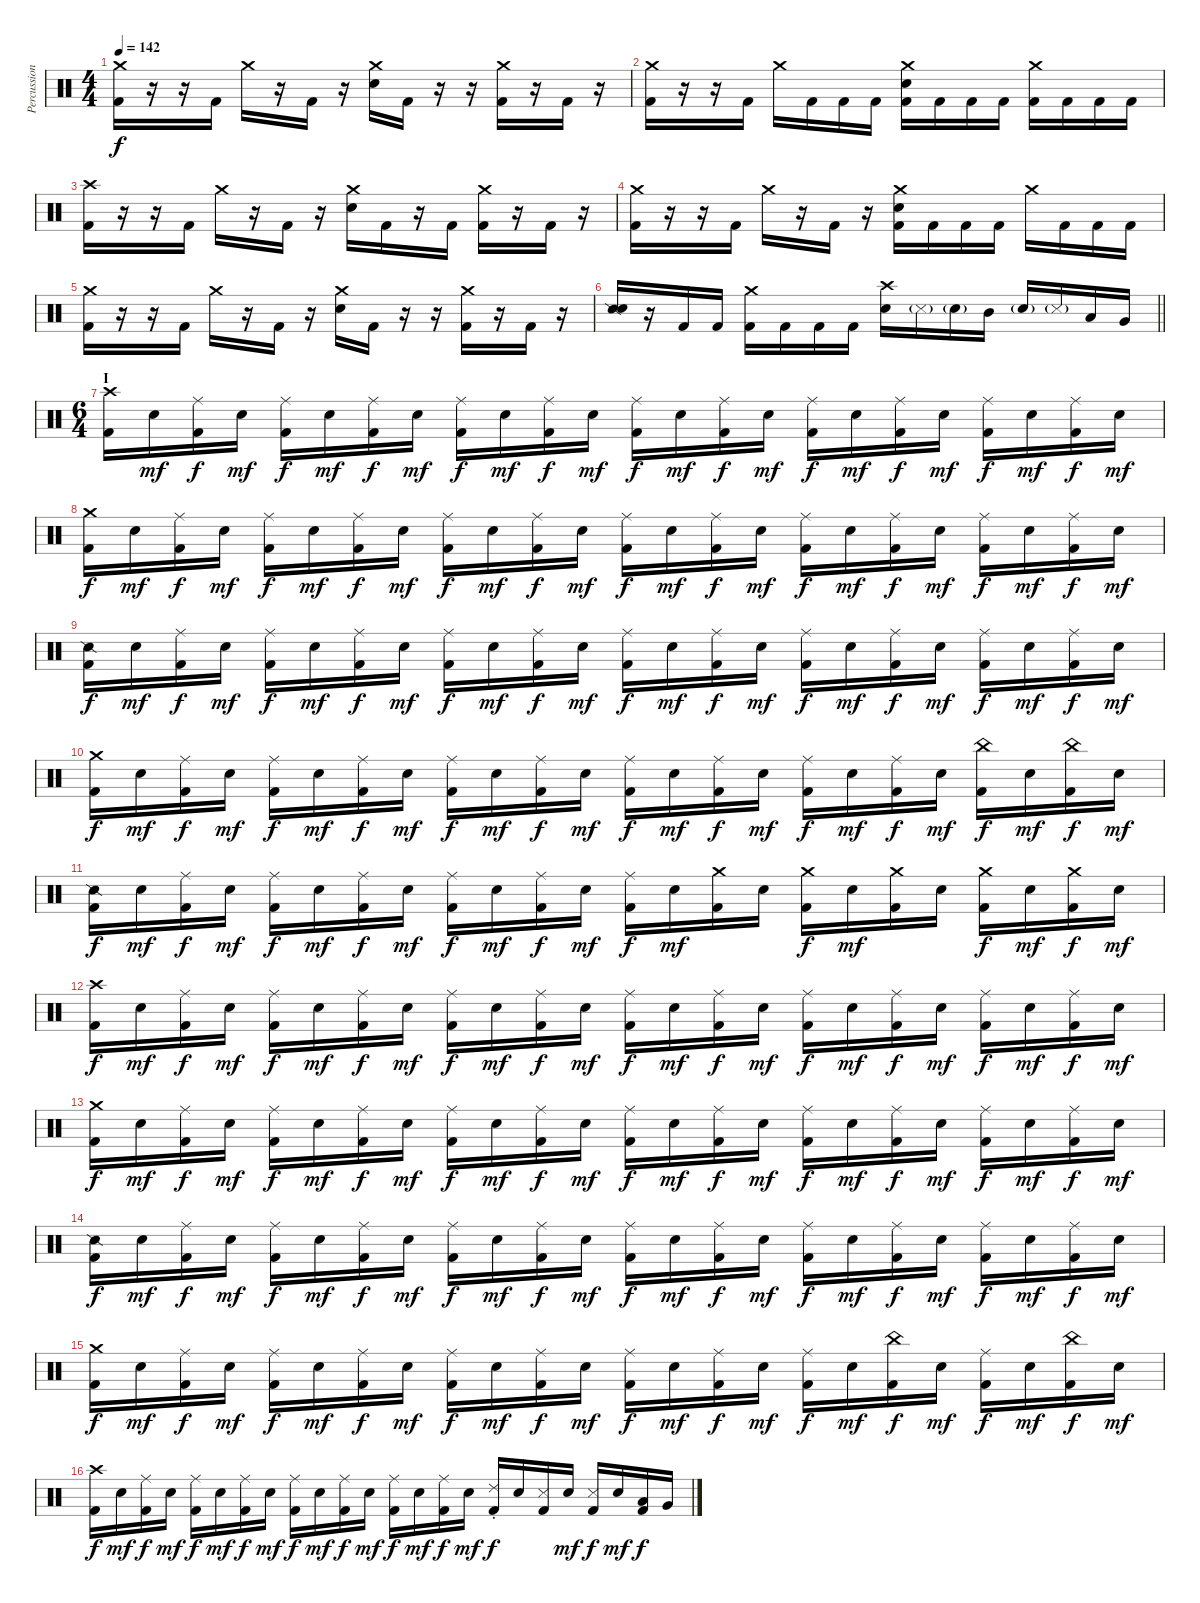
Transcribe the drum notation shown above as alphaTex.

\track ("Percussion" "Percussion") {instrument percussion}
\staff {score}
\articulation defaults
\ts (4 4)
\tempo 142
\clef neutral
\ks c
("Crash medium (hit)" "Kick (hit) 2").16{dy f} r.16 r.16 "Kick (hit) 2".16 "Crash medium (hit)".16 r.16 "Kick (hit) 2".16 r.16 ("Crash medium (hit)" "Snare (hit) 2").16 "Kick (hit) 2".16 r.16 r.16 ("Crash medium (hit)" "Kick (hit) 2").16 r.16 "Kick (hit) 2".16 r.16 |
("Crash medium (hit)" "Kick (hit) 2").16 r.16 r.16 "Kick (hit) 2".16 "Crash medium (hit)".16 "Kick (hit) 2".16 "Kick (hit) 2".16 "Kick (hit) 2".16 ("Crash medium (hit)" "Snare (hit) 2" "Kick (hit) 2").16 "Kick (hit) 2".16 "Kick (hit) 2".16 "Kick (hit) 2".16 ("Crash medium (hit)" "Kick (hit) 2").16 "Kick (hit) 2".16 "Kick (hit) 2".16 "Kick (hit) 2".16 |
("Crash high (hit)" "Kick (hit) 2").16 r.16 r.16 "Kick (hit) 2".16 "Crash medium (hit)".16 r.16 "Kick (hit) 2".16 r.16 ("Crash medium (hit)" "Snare (hit) 2").16 "Kick (hit) 2".16 r.16 "Kick (hit) 2".16 ("Crash medium (hit)" "Kick (hit) 2").16 r.16 "Kick (hit) 2".16 r.16 |
("Crash medium (hit)" "Kick (hit) 2").16 r.16 r.16 "Kick (hit) 2".16 "Crash medium (hit)".16 r.16 "Kick (hit) 2".16 r.16 ("Crash medium (hit)" "Snare (hit) 2" "Kick (hit) 2").16 "Kick (hit) 2".16 "Kick (hit) 2".16 "Kick (hit) 2".16 "Crash medium (hit)".16 "Kick (hit) 2".16 "Kick (hit) 2".16 "Kick (hit) 2".16 |
("Crash medium (hit)" "Kick (hit) 2").16 r.16 r.16 "Kick (hit) 2".16 "Crash medium (hit)".16 r.16 "Kick (hit) 2".16 r.16 ("Crash medium (hit)" "Snare (hit) 2").16 "Kick (hit) 2".16 r.16 r.16 ("Crash medium (hit)" "Kick (hit) 2").16 r.16 "Kick (hit) 2".16 r.16 |
\barLineRight lightlight
("Snare (side stick) 2" "Snare (hit) 2").16 r.16 "Kick (hit) 2".16 "Kick (hit) 2".16 ("Crash medium (hit)" "Kick (hit) 2").16 "Kick (hit) 2".16 "Kick (hit) 2".16 "Kick (hit) 2".16 ("Crash high (hit)" "Snare (hit) 2").16 "Metronome (hit)"{g}.16 "Snare (hit) 2"{g}.16 "Mid Tom (hit)".16 "Snare (hit) 2"{g}.16 "Metronome (hit)"{g}.16 "Low Tom (hit)".16 "Very Low Tom (hit)".16 |
\ts (6 4)
\section ("" "I")
("Crash high (hit)" "Kick (hit) 2").16 "Snare (hit) 2".16{dy mf} ("Ride (middle)" "Kick (hit) 2").16{dy f} "Snare (hit) 2".16{dy mf} ("Ride (middle)" "Kick (hit) 2").16{dy f} "Snare (hit) 2".16{dy mf} ("Ride (middle)" "Kick (hit) 2").16{dy f} "Snare (hit) 2".16{dy mf} ("Ride (middle)" "Kick (hit) 2").16{dy f} "Snare (hit) 2".16{dy mf} ("Ride (middle)" "Kick (hit) 2").16{dy f} "Snare (hit) 2".16{dy mf} ("Ride (middle)" "Kick (hit) 2").16{dy f} "Snare (hit) 2".16{dy mf} ("Ride (middle)" "Kick (hit) 2").16{dy f} "Snare (hit) 2".16{dy mf} ("Ride (middle)" "Kick (hit) 2").16{dy f} "Snare (hit) 2".16{dy mf} ("Ride (middle)" "Kick (hit) 2").16{dy f} "Snare (hit) 2".16{dy mf} ("Ride (middle)" "Kick (hit) 2").16{dy f} "Snare (hit) 2".16{dy mf} ("Ride (middle)" "Kick (hit) 2").16{dy f} "Snare (hit) 2".16{dy mf} |
("Crash medium (hit)" "Kick (hit) 2").16{dy f} "Snare (hit) 2".16{dy mf} ("Ride (middle)" "Kick (hit) 2").16{dy f} "Snare (hit) 2".16{dy mf} ("Ride (middle)" "Kick (hit) 2").16{dy f} "Snare (hit) 2".16{dy mf} ("Ride (middle)" "Kick (hit) 2").16{dy f} "Snare (hit) 2".16{dy mf} ("Ride (middle)" "Kick (hit) 2").16{dy f} "Snare (hit) 2".16{dy mf} ("Ride (middle)" "Kick (hit) 2").16{dy f} "Snare (hit) 2".16{dy mf} ("Ride (middle)" "Kick (hit) 2").16{dy f} "Snare (hit) 2".16{dy mf} ("Ride (middle)" "Kick (hit) 2").16{dy f} "Snare (hit) 2".16{dy mf} ("Ride (middle)" "Kick (hit) 2").16{dy f} "Snare (hit) 2".16{dy mf} ("Ride (middle)" "Kick (hit) 2").16{dy f} "Snare (hit) 2".16{dy mf} ("Ride (middle)" "Kick (hit) 2").16{dy f} "Snare (hit) 2".16{dy mf} ("Ride (middle)" "Kick (hit) 2").16{dy f} "Snare (hit) 2".16{dy mf} |
("Snare (side stick) 2" "Kick (hit) 2").16{dy f} "Snare (hit) 2".16{dy mf} ("Ride (middle)" "Kick (hit) 2").16{dy f} "Snare (hit) 2".16{dy mf} ("Ride (middle)" "Kick (hit) 2").16{dy f} "Snare (hit) 2".16{dy mf} ("Ride (middle)" "Kick (hit) 2").16{dy f} "Snare (hit) 2".16{dy mf} ("Ride (middle)" "Kick (hit) 2").16{dy f} "Snare (hit) 2".16{dy mf} ("Ride (middle)" "Kick (hit) 2").16{dy f} "Snare (hit) 2".16{dy mf} ("Ride (middle)" "Kick (hit) 2").16{dy f} "Snare (hit) 2".16{dy mf} ("Ride (middle)" "Kick (hit) 2").16{dy f} "Snare (hit) 2".16{dy mf} ("Ride (middle)" "Kick (hit) 2").16{dy f} "Snare (hit) 2".16{dy mf} ("Ride (middle)" "Kick (hit) 2").16{dy f} "Snare (hit) 2".16{dy mf} ("Ride (middle)" "Kick (hit) 2").16{dy f} "Snare (hit) 2".16{dy mf} ("Ride (middle)" "Kick (hit) 2").16{dy f} "Snare (hit) 2".16{dy mf} |
("Crash medium (hit)" "Kick (hit) 2").16{dy f} "Snare (hit) 2".16{dy mf} ("Ride (middle)" "Kick (hit) 2").16{dy f} "Snare (hit) 2".16{dy mf} ("Ride (middle)" "Kick (hit) 2").16{dy f} "Snare (hit) 2".16{dy mf} ("Ride (middle)" "Kick (hit) 2").16{dy f} "Snare (hit) 2".16{dy mf} ("Ride (middle)" "Kick (hit) 2").16{dy f} "Snare (hit) 2".16{dy mf} ("Ride (middle)" "Kick (hit) 2").16{dy f} "Snare (hit) 2".16{dy mf} ("Ride (middle)" "Kick (hit) 2").16{dy f} "Snare (hit) 2".16{dy mf} ("Ride (middle)" "Kick (hit) 2").16{dy f} "Snare (hit) 2".16{dy mf} ("Ride (middle)" "Kick (hit) 2").16{dy f} "Snare (hit) 2".16{dy mf} ("Ride (middle)" "Kick (hit) 2").16{dy f} "Snare (hit) 2".16{dy mf} ("China (hit)" "Kick (hit) 2").16{dy f} "Snare (hit) 2".16{dy mf} ("China (hit)" "Kick (hit) 2").16{dy f} "Snare (hit) 2".16{dy mf} |
("Snare (side stick) 2" "Kick (hit) 2").16{dy f} "Snare (hit) 2".16{dy mf} ("Ride (middle)" "Kick (hit) 2").16{dy f} "Snare (hit) 2".16{dy mf} ("Ride (middle)" "Kick (hit) 2").16{dy f} "Snare (hit) 2".16{dy mf} ("Ride (middle)" "Kick (hit) 2").16{dy f} "Snare (hit) 2".16{dy mf} ("Ride (middle)" "Kick (hit) 2").16{dy f} "Snare (hit) 2".16{dy mf} ("Ride (middle)" "Kick (hit) 2").16{dy f} "Snare (hit) 2".16{dy mf} ("Ride (middle)" "Kick (hit) 2").16{dy f} "Snare (hit) 2".16{dy mf} ("Crash medium (hit)" "Kick (hit) 2").16 "Snare (hit) 2".16 ("Crash medium (hit)" "Kick (hit) 2").16{dy f} "Snare (hit) 2".16{dy mf} ("Crash medium (hit)" "Kick (hit) 2").16 "Snare (hit) 2".16 ("Crash medium (hit)" "Kick (hit) 2").16{dy f} "Snare (hit) 2".16{dy mf} ("Crash medium (hit)" "Kick (hit) 2").16{dy f} "Snare (hit) 2".16{dy mf} |
("Crash high (hit)" "Kick (hit) 2").16{dy f} "Snare (hit) 2".16{dy mf} ("Ride (middle)" "Kick (hit) 2").16{dy f} "Snare (hit) 2".16{dy mf} ("Ride (middle)" "Kick (hit) 2").16{dy f} "Snare (hit) 2".16{dy mf} ("Ride (middle)" "Kick (hit) 2").16{dy f} "Snare (hit) 2".16{dy mf} ("Ride (middle)" "Kick (hit) 2").16{dy f} "Snare (hit) 2".16{dy mf} ("Ride (middle)" "Kick (hit) 2").16{dy f} "Snare (hit) 2".16{dy mf} ("Ride (middle)" "Kick (hit) 2").16{dy f} "Snare (hit) 2".16{dy mf} ("Ride (middle)" "Kick (hit) 2").16{dy f} "Snare (hit) 2".16{dy mf} ("Ride (middle)" "Kick (hit) 2").16{dy f} "Snare (hit) 2".16{dy mf} ("Ride (middle)" "Kick (hit) 2").16{dy f} "Snare (hit) 2".16{dy mf} ("Ride (middle)" "Kick (hit) 2").16{dy f} "Snare (hit) 2".16{dy mf} ("Ride (middle)" "Kick (hit) 2").16{dy f} "Snare (hit) 2".16{dy mf} |
("Crash medium (hit)" "Kick (hit) 2").16{dy f} "Snare (hit) 2".16{dy mf} ("Ride (middle)" "Kick (hit) 2").16{dy f} "Snare (hit) 2".16{dy mf} ("Ride (middle)" "Kick (hit) 2").16{dy f} "Snare (hit) 2".16{dy mf} ("Ride (middle)" "Kick (hit) 2").16{dy f} "Snare (hit) 2".16{dy mf} ("Ride (middle)" "Kick (hit) 2").16{dy f} "Snare (hit) 2".16{dy mf} ("Ride (middle)" "Kick (hit) 2").16{dy f} "Snare (hit) 2".16{dy mf} ("Ride (middle)" "Kick (hit) 2").16{dy f} "Snare (hit) 2".16{dy mf} ("Ride (middle)" "Kick (hit) 2").16{dy f} "Snare (hit) 2".16{dy mf} ("Ride (middle)" "Kick (hit) 2").16{dy f} "Snare (hit) 2".16{dy mf} ("Ride (middle)" "Kick (hit) 2").16{dy f} "Snare (hit) 2".16{dy mf} ("Ride (middle)" "Kick (hit) 2").16{dy f} "Snare (hit) 2".16{dy mf} ("Ride (middle)" "Kick (hit) 2").16{dy f} "Snare (hit) 2".16{dy mf} |
("Snare (side stick) 2" "Kick (hit) 2").16{dy f} "Snare (hit) 2".16{dy mf} ("Ride (middle)" "Kick (hit) 2").16{dy f} "Snare (hit) 2".16{dy mf} ("Ride (middle)" "Kick (hit) 2").16{dy f} "Snare (hit) 2".16{dy mf} ("Ride (middle)" "Kick (hit) 2").16{dy f} "Snare (hit) 2".16{dy mf} ("Ride (middle)" "Kick (hit) 2").16{dy f} "Snare (hit) 2".16{dy mf} ("Ride (middle)" "Kick (hit) 2").16{dy f} "Snare (hit) 2".16{dy mf} ("Ride (middle)" "Kick (hit) 2").16{dy f} "Snare (hit) 2".16{dy mf} ("Ride (middle)" "Kick (hit) 2").16{dy f} "Snare (hit) 2".16{dy mf} ("Ride (middle)" "Kick (hit) 2").16{dy f} "Snare (hit) 2".16{dy mf} ("Ride (middle)" "Kick (hit) 2").16{dy f} "Snare (hit) 2".16{dy mf} ("Ride (middle)" "Kick (hit) 2").16{dy f} "Snare (hit) 2".16{dy mf} ("Ride (middle)" "Kick (hit) 2").16{dy f} "Snare (hit) 2".16{dy mf} |
("Crash medium (hit)" "Kick (hit) 2").16{dy f} "Snare (hit) 2".16{dy mf} ("Ride (middle)" "Kick (hit) 2").16{dy f} "Snare (hit) 2".16{dy mf} ("Ride (middle)" "Kick (hit) 2").16{dy f} "Snare (hit) 2".16{dy mf} ("Ride (middle)" "Kick (hit) 2").16{dy f} "Snare (hit) 2".16{dy mf} ("Ride (middle)" "Kick (hit) 2").16{dy f} "Snare (hit) 2".16{dy mf} ("Ride (middle)" "Kick (hit) 2").16{dy f} "Snare (hit) 2".16{dy mf} ("Ride (middle)" "Kick (hit) 2").16{dy f} "Snare (hit) 2".16{dy mf} ("Ride (middle)" "Kick (hit) 2").16{dy f} "Snare (hit) 2".16{dy mf} ("Ride (middle)" "Kick (hit) 2").16{dy f} "Snare (hit) 2".16{dy mf} ("China (hit)" "Kick (hit) 2").16{dy f} "Snare (hit) 2".16{dy mf} ("Ride (middle)" "Kick (hit) 2").16{dy f} "Snare (hit) 2".16{dy mf} ("China (hit)" "Kick (hit) 2").16{dy f} "Snare (hit) 2".16{dy mf} |
("Crash high (hit)" "Kick (hit) 2").16{dy f} "Snare (hit) 2".16{dy mf} ("Ride (middle)" "Kick (hit) 2").16{dy f} "Snare (hit) 2".16{dy mf} ("Ride (middle)" "Kick (hit) 2").16{dy f} "Snare (hit) 2".16{dy mf} ("Ride (middle)" "Kick (hit) 2").16{dy f} "Snare (hit) 2".16{dy mf} ("Ride (middle)" "Kick (hit) 2").16{dy f} "Snare (hit) 2".16{dy mf} ("Ride (middle)" "Kick (hit) 2").16{dy f} "Snare (hit) 2".16{dy mf} ("Ride (middle)" "Kick (hit) 2").16{dy f} "Snare (hit)".16{dy mf} ("Ride (middle)" "Kick (hit) 2").16{dy f} "Snare (hit) 2".16{dy mf} ("Ride (choke) 2" "Kick (hit) 2").16{dy f} "Snare (hit) 2".16 ("Metronome (hit)" "Kick (hit) 2").16 "Snare (hit) 2".16{dy mf} ("Metronome (hit)" "Kick (hit) 2").16{dy f} "Snare (hit) 2".16{dy mf} ("Low Tom (hit)" "Kick (hit) 2").16{dy f} "Very Low Tom (hit)".16
